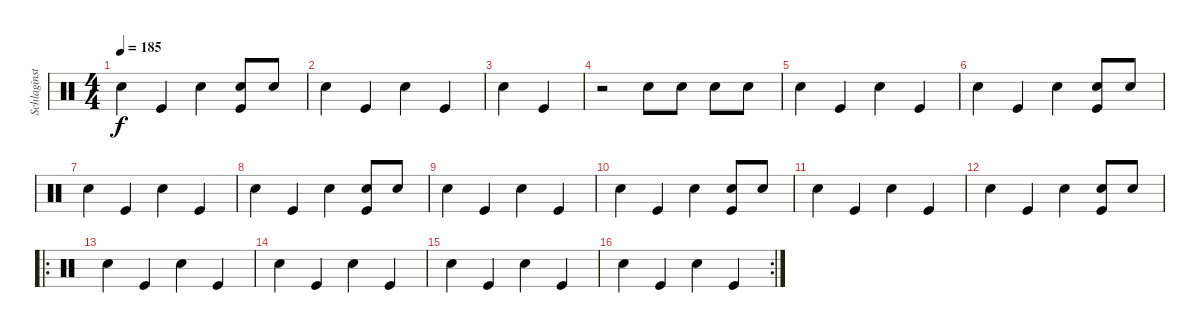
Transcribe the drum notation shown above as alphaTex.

\track ("Schlaginstrumente - Auswahl" "Schlaginst") {instrument percussion}
\staff {score}
\articulation defaults
\ts (4 4)
\tempo 185
\clef neutral
\ks c "Snare (hit) 2".4{dy f} "Kick (hit)".4 "Snare (hit) 2".4
("Kick (hit)" "Snare (hit) 2").8 "Snare (hit) 2".8 |
"Snare (hit) 2".4 "Kick (hit)".4 "Snare (hit) 2".4 "Kick (hit)".4 |
"Snare (hit) 2".4 "Kick (hit)".4 |
r.2 "Snare (hit) 2".8 "Snare (hit) 2".8 "Snare (hit) 2".8 "Snare (hit) 2".8 |
"Snare (hit) 2".4 "Kick (hit)".4 "Snare (hit) 2".4 "Kick (hit)".4 |
"Snare (hit) 2".4 "Kick (hit)".4 "Snare (hit) 2".4 ("Kick (hit)" "Snare (hit) 2").8 "Snare (hit) 2".8 |
"Snare (hit) 2".4 "Kick (hit)".4 "Snare (hit) 2".4 "Kick (hit)".4 |
"Snare (hit) 2".4 "Kick (hit)".4 "Snare (hit) 2".4 ("Kick (hit)" "Snare (hit) 2").8 "Snare (hit) 2".8 |
"Snare (hit) 2".4 "Kick (hit)".4 "Snare (hit) 2".4 "Kick (hit)".4 |
"Snare (hit) 2".4 "Kick (hit)".4 "Snare (hit) 2".4 ("Kick (hit)" "Snare (hit) 2").8 "Snare (hit) 2".8 |
"Snare (hit) 2".4 "Kick (hit)".4 "Snare (hit) 2".4 "Kick (hit)".4 |
"Snare (hit) 2".4 "Kick (hit)".4 "Snare (hit) 2".4 ("Kick (hit)" "Snare (hit) 2").8 "Snare (hit) 2".8 |
\ro "Snare (hit) 2".4 "Kick (hit)".4 "Snare (hit) 2".4 "Kick (hit)".4
|
"Snare (hit) 2".4 "Kick (hit)".4 "Snare (hit) 2".4 "Kick (hit)".4 |
"Snare (hit) 2".4 "Kick (hit)".4 "Snare (hit) 2".4 "Kick (hit)".4 |
\rc 2 "Snare (hit) 2".4 "Kick (hit)".4 "Snare (hit) 2".4 "Kick (hit)".4
